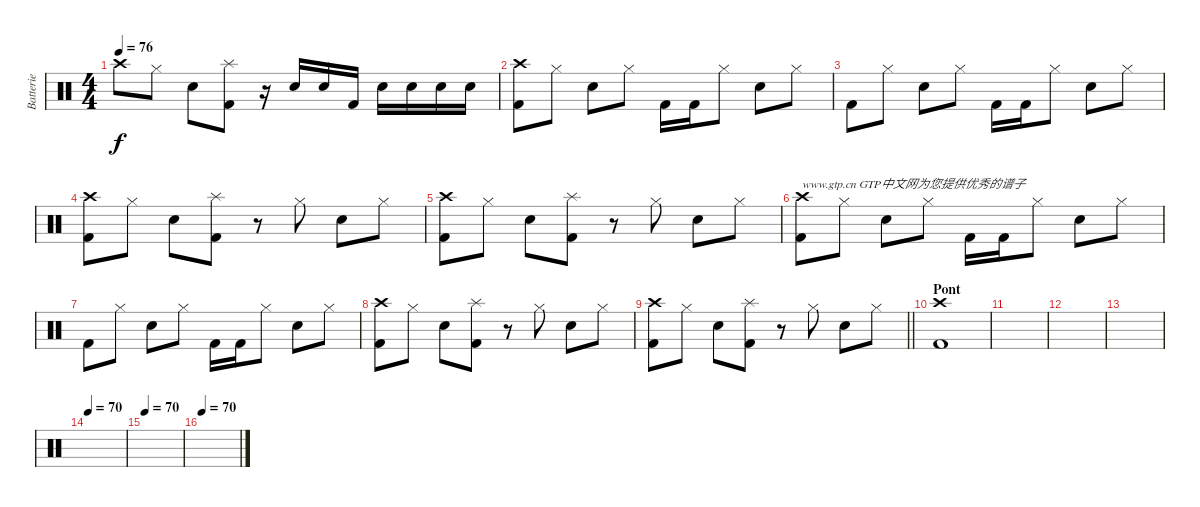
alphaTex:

\track ("Batterie" "Batterie") {instrument percussion}
\staff {score}
\articulation defaults
\ts (4 4)
\tempo 76
\clef neutral
\ks c "Crash high (hit)"{t}.8{dy f} "Hi-Hat (closed)".8 "Electric Snare (hit)".8
("Splash (hit)" "Kick (hit) 2").8 r.16 "Electric Snare (hit)".16 "Electric Snare (hit)".16 "Kick (hit) 2".16 "Electric Snare (hit)".16 "Electric Snare (hit)".16 "Electric Snare (hit)".16 "Electric Snare (hit)".16 |
("Crash high (hit)" "Kick (hit) 2").8 "Hi-Hat (closed)".8 "Electric Snare (hit)".8 "Hi-Hat (closed)".8 "Kick (hit) 2".16 "Kick (hit) 2".16 "Hi-Hat (closed)".8 "Electric Snare (hit)".8 "Hi-Hat (closed)".8 |
"Kick (hit) 2".8 "Hi-Hat (closed)".8 "Electric Snare (hit)".8 "Hi-Hat (closed)".8 "Kick (hit) 2".16 "Kick (hit) 2".16 "Hi-Hat (closed)".8 "Electric Snare (hit)".8 "Hi-Hat (closed)".8 |
("Crash high (hit)" "Kick (hit) 2").8 "Hi-Hat (closed)".8 "Electric Snare (hit)".8 ("Splash (hit)" "Kick (hit) 2").8 r.8 "Hi-Hat (closed)".8 "Electric Snare (hit)".8 "Hi-Hat (closed)".8 |
("Crash high (hit)" "Kick (hit) 2").8 "Hi-Hat (closed)".8 "Electric Snare (hit)".8 ("Splash (hit)" "Kick (hit) 2").8 r.8 "Hi-Hat (closed)".8 "Electric Snare (hit)".8 "Hi-Hat (closed)".8 |
("Crash high (hit)" "Kick (hit) 2").8{txt "www.gtp.cn GTP中文网为您提供优秀的谱子"} "Hi-Hat (closed)".8 "Electric Snare (hit)".8 "Hi-Hat (closed)".8 "Kick (hit) 2".16 "Kick (hit) 2".16 "Hi-Hat (closed)".8 "Electric Snare (hit)".8 "Hi-Hat (closed)".8 |
"Kick (hit) 2".8 "Hi-Hat (closed)".8 "Electric Snare (hit)".8 "Hi-Hat (closed)".8 "Kick (hit) 2".16 "Kick (hit) 2".16 "Hi-Hat (closed)".8 "Electric Snare (hit)".8 "Hi-Hat (closed)".8 |
("Crash high (hit)" "Kick (hit) 2").8 "Hi-Hat (closed)".8 "Electric Snare (hit)".8 ("Splash (hit)" "Kick (hit) 2").8 r.8 "Hi-Hat (closed)".8 "Electric Snare (hit)".8 "Hi-Hat (closed)".8 |
\barLineRight lightlight
("Crash high (hit)" "Kick (hit) 2").8 "Hi-Hat (closed)".8 "Electric Snare (hit)".8 ("Splash (hit)" "Kick (hit) 2").8 r.8 "Hi-Hat (closed)".8 "Electric Snare (hit)".8 "Hi-Hat (closed)".8 |
\section ("" "Pont")
("Crash high (hit)" "Kick (hit) 2").1 |
|
|
|
\tempo 70
|
\tempo 70
|
\tempo 70
